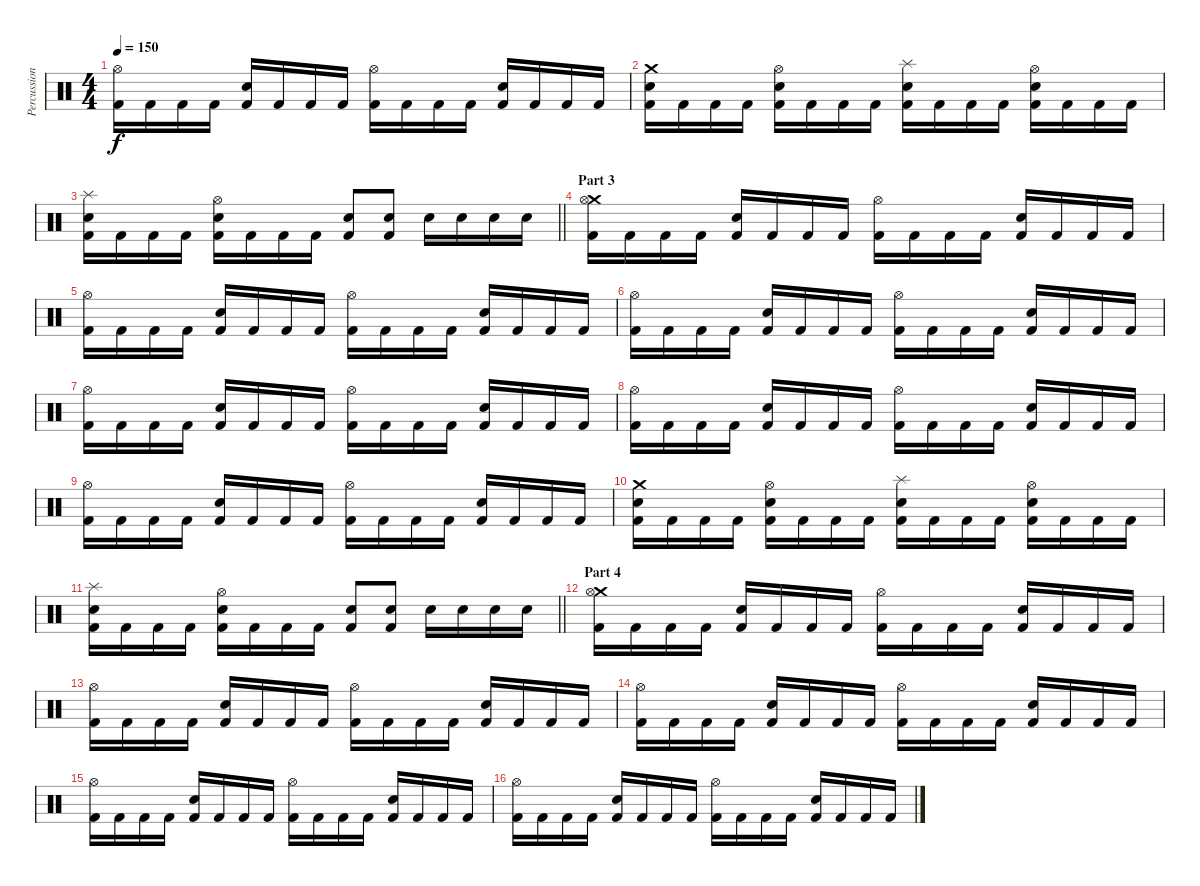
\track ("Percussion" "Percussion") {instrument percussion}
\staff {score}
\articulation defaults
\ts (4 4)
\tempo 150
\clef neutral
\ks c
("Hi-Hat (open)" "Kick (hit) 2").16{dy f} "Kick (hit) 2".16 "Kick (hit) 2".16 "Kick (hit) 2".16 ("Snare (hit) 2" "Kick (hit) 2").16 "Kick (hit) 2".16 "Kick (hit) 2".16 "Kick (hit) 2".16 ("Hi-Hat (open)" "Kick (hit) 2").16 "Kick (hit) 2".16 "Kick (hit) 2".16 "Kick (hit) 2".16 ("Snare (hit) 2" "Kick (hit) 2").16 "Kick (hit) 2".16 "Kick (hit) 2".16 "Kick (hit) 2".16 |
("Crash medium (hit)" "Snare (hit) 2" "Kick (hit) 2").16 "Kick (hit) 2".16 "Kick (hit) 2".16 "Kick (hit) 2".16 ("Hi-Hat (open)" "Snare (hit) 2" "Kick (hit) 2").16 "Kick (hit) 2".16 "Kick (hit) 2".16 "Kick (hit) 2".16 ("Splash (hit)" "Snare (hit) 2" "Kick (hit) 2").16 "Kick (hit) 2".16 "Kick (hit) 2".16 "Kick (hit) 2".16 ("Hi-Hat (open)" "Snare (hit) 2" "Kick (hit) 2").16 "Kick (hit) 2".16 "Kick (hit) 2".16 "Kick (hit) 2".16 |
\barLineRight lightlight
("Splash (hit)" "Snare (hit) 2" "Kick (hit) 2").16 "Kick (hit) 2".16 "Kick (hit) 2".16 "Kick (hit) 2".16 ("Hi-Hat (open)" "Snare (hit) 2" "Kick (hit) 2").16 "Kick (hit) 2".16 "Kick (hit) 2".16 "Kick (hit) 2".16 ("Kick (hit) 2" "Snare (hit) 2").8 ("Kick (hit) 2" "Snare (hit) 2").8 "Snare (hit) 2".16 "Snare (hit) 2".16 "Snare (hit) 2".16 "Snare (hit) 2".16 |
\section ("" "Part 3")
("Crash medium (hit)" "Hi-Hat (open)" "Kick (hit) 2").16 "Kick (hit) 2".16 "Kick (hit) 2".16 "Kick (hit) 2".16 ("Snare (hit) 2" "Kick (hit) 2").16 "Kick (hit) 2".16 "Kick (hit) 2".16 "Kick (hit) 2".16 ("Hi-Hat (open)" "Kick (hit) 2").16 "Kick (hit) 2".16 "Kick (hit) 2".16 "Kick (hit) 2".16 ("Snare (hit) 2" "Kick (hit) 2").16 "Kick (hit) 2".16 "Kick (hit) 2".16 "Kick (hit) 2".16 |
("Hi-Hat (open)" "Kick (hit) 2").16 "Kick (hit) 2".16 "Kick (hit) 2".16 "Kick (hit) 2".16 ("Snare (hit) 2" "Kick (hit) 2").16 "Kick (hit) 2".16 "Kick (hit) 2".16 "Kick (hit) 2".16 ("Hi-Hat (open)" "Kick (hit) 2").16 "Kick (hit) 2".16 "Kick (hit) 2".16 "Kick (hit) 2".16 ("Snare (hit) 2" "Kick (hit) 2").16 "Kick (hit) 2".16 "Kick (hit) 2".16 "Kick (hit) 2".16 |
("Hi-Hat (open)" "Kick (hit) 2").16 "Kick (hit) 2".16 "Kick (hit) 2".16 "Kick (hit) 2".16 ("Snare (hit) 2" "Kick (hit) 2").16 "Kick (hit) 2".16 "Kick (hit) 2".16 "Kick (hit) 2".16 ("Hi-Hat (open)" "Kick (hit) 2").16 "Kick (hit) 2".16 "Kick (hit) 2".16 "Kick (hit) 2".16 ("Snare (hit) 2" "Kick (hit) 2").16 "Kick (hit) 2".16 "Kick (hit) 2".16 "Kick (hit) 2".16 |
("Hi-Hat (open)" "Kick (hit) 2").16 "Kick (hit) 2".16 "Kick (hit) 2".16 "Kick (hit) 2".16 ("Snare (hit) 2" "Kick (hit) 2").16 "Kick (hit) 2".16 "Kick (hit) 2".16 "Kick (hit) 2".16 ("Hi-Hat (open)" "Kick (hit) 2").16 "Kick (hit) 2".16 "Kick (hit) 2".16 "Kick (hit) 2".16 ("Snare (hit) 2" "Kick (hit) 2").16 "Kick (hit) 2".16 "Kick (hit) 2".16 "Kick (hit) 2".16 |
("Hi-Hat (open)" "Kick (hit) 2").16 "Kick (hit) 2".16 "Kick (hit) 2".16 "Kick (hit) 2".16 ("Snare (hit) 2" "Kick (hit) 2").16 "Kick (hit) 2".16 "Kick (hit) 2".16 "Kick (hit) 2".16 ("Hi-Hat (open)" "Kick (hit) 2").16 "Kick (hit) 2".16 "Kick (hit) 2".16 "Kick (hit) 2".16 ("Snare (hit) 2" "Kick (hit) 2").16 "Kick (hit) 2".16 "Kick (hit) 2".16 "Kick (hit) 2".16 |
("Hi-Hat (open)" "Kick (hit) 2").16 "Kick (hit) 2".16 "Kick (hit) 2".16 "Kick (hit) 2".16 ("Snare (hit) 2" "Kick (hit) 2").16 "Kick (hit) 2".16 "Kick (hit) 2".16 "Kick (hit) 2".16 ("Hi-Hat (open)" "Kick (hit) 2").16 "Kick (hit) 2".16 "Kick (hit) 2".16 "Kick (hit) 2".16 ("Snare (hit) 2" "Kick (hit) 2").16 "Kick (hit) 2".16 "Kick (hit) 2".16 "Kick (hit) 2".16 |
("Crash medium (hit)" "Snare (hit) 2" "Kick (hit) 2").16 "Kick (hit) 2".16 "Kick (hit) 2".16 "Kick (hit) 2".16 ("Hi-Hat (open)" "Snare (hit) 2" "Kick (hit) 2").16 "Kick (hit) 2".16 "Kick (hit) 2".16 "Kick (hit) 2".16 ("Splash (hit)" "Snare (hit) 2" "Kick (hit) 2").16 "Kick (hit) 2".16 "Kick (hit) 2".16 "Kick (hit) 2".16 ("Hi-Hat (open)" "Snare (hit) 2" "Kick (hit) 2").16 "Kick (hit) 2".16 "Kick (hit) 2".16 "Kick (hit) 2".16 |
\barLineRight lightlight
("Splash (hit)" "Snare (hit) 2" "Kick (hit) 2").16 "Kick (hit) 2".16 "Kick (hit) 2".16 "Kick (hit) 2".16 ("Hi-Hat (open)" "Snare (hit) 2" "Kick (hit) 2").16 "Kick (hit) 2".16 "Kick (hit) 2".16 "Kick (hit) 2".16 ("Kick (hit) 2" "Snare (hit) 2").8 ("Kick (hit) 2" "Snare (hit) 2").8 "Snare (hit) 2".16 "Snare (hit) 2".16 "Snare (hit) 2".16 "Snare (hit) 2".16 |
\section ("" "Part 4")
("Crash medium (hit)" "Hi-Hat (open)" "Kick (hit) 2").16 "Kick (hit) 2".16 "Kick (hit) 2".16 "Kick (hit) 2".16 ("Snare (hit) 2" "Kick (hit) 2").16 "Kick (hit) 2".16 "Kick (hit) 2".16 "Kick (hit) 2".16 ("Hi-Hat (open)" "Kick (hit) 2").16 "Kick (hit) 2".16 "Kick (hit) 2".16 "Kick (hit) 2".16 ("Snare (hit) 2" "Kick (hit) 2").16 "Kick (hit) 2".16 "Kick (hit) 2".16 "Kick (hit) 2".16 |
("Hi-Hat (open)" "Kick (hit) 2").16 "Kick (hit) 2".16 "Kick (hit) 2".16 "Kick (hit) 2".16 ("Snare (hit) 2" "Kick (hit) 2").16 "Kick (hit) 2".16 "Kick (hit) 2".16 "Kick (hit) 2".16 ("Hi-Hat (open)" "Kick (hit) 2").16 "Kick (hit) 2".16 "Kick (hit) 2".16 "Kick (hit) 2".16 ("Snare (hit) 2" "Kick (hit) 2").16 "Kick (hit) 2".16 "Kick (hit) 2".16 "Kick (hit) 2".16 |
("Hi-Hat (open)" "Kick (hit) 2").16 "Kick (hit) 2".16 "Kick (hit) 2".16 "Kick (hit) 2".16 ("Snare (hit) 2" "Kick (hit) 2").16 "Kick (hit) 2".16 "Kick (hit) 2".16 "Kick (hit) 2".16 ("Hi-Hat (open)" "Kick (hit) 2").16 "Kick (hit) 2".16 "Kick (hit) 2".16 "Kick (hit) 2".16 ("Snare (hit) 2" "Kick (hit) 2").16 "Kick (hit) 2".16 "Kick (hit) 2".16 "Kick (hit) 2".16 |
("Hi-Hat (open)" "Kick (hit) 2").16 "Kick (hit) 2".16 "Kick (hit) 2".16 "Kick (hit) 2".16 ("Snare (hit) 2" "Kick (hit) 2").16 "Kick (hit) 2".16 "Kick (hit) 2".16 "Kick (hit) 2".16 ("Hi-Hat (open)" "Kick (hit) 2").16 "Kick (hit) 2".16 "Kick (hit) 2".16 "Kick (hit) 2".16 ("Snare (hit) 2" "Kick (hit) 2").16 "Kick (hit) 2".16 "Kick (hit) 2".16 "Kick (hit) 2".16 |
("Hi-Hat (open)" "Kick (hit) 2").16 "Kick (hit) 2".16 "Kick (hit) 2".16 "Kick (hit) 2".16 ("Snare (hit) 2" "Kick (hit) 2").16 "Kick (hit) 2".16 "Kick (hit) 2".16 "Kick (hit) 2".16 ("Hi-Hat (open)" "Kick (hit) 2").16 "Kick (hit) 2".16 "Kick (hit) 2".16 "Kick (hit) 2".16 ("Snare (hit) 2" "Kick (hit) 2").16 "Kick (hit) 2".16 "Kick (hit) 2".16 "Kick (hit) 2".16
